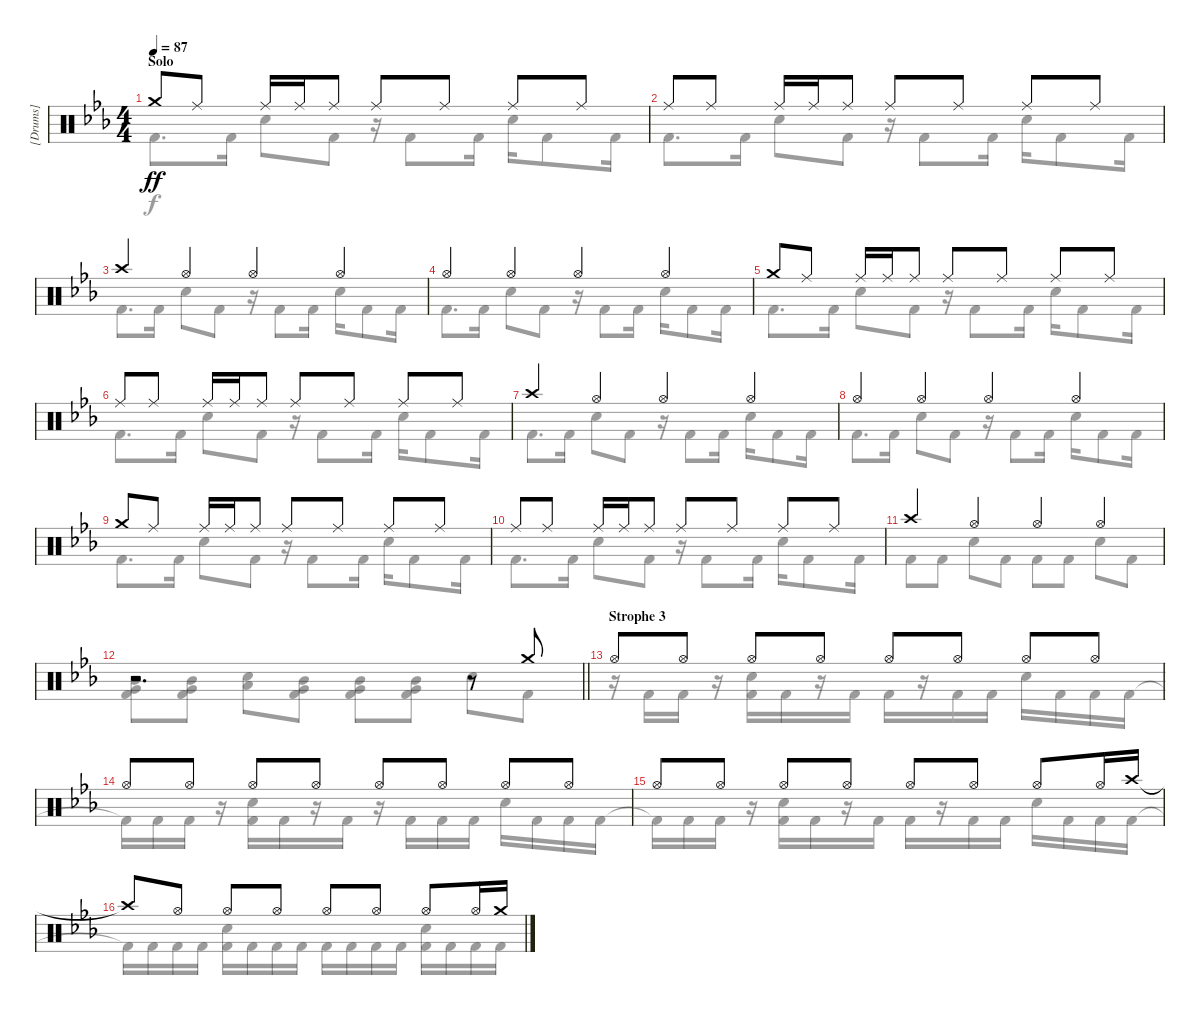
\track ("[Drums]" "[Drums]") {instrument percussion}
\staff {score}
\articulation defaults
\voice
\ts (4 4)
\section ("" "Solo")
\tempo 87
\clef neutral
\ks cminor "Crash medium (hit)".8{dy ff} "Ride (middle)".8 "Ride (middle)".16 "Ride (middle)".16 "Ride (middle)".8 "Ride (middle)".8 "Ride (middle)".8 "Ride (middle)".8 "Ride (middle)".8
|
"Ride (middle)".8 "Ride (middle)".8 "Ride (middle)".16 "Ride (middle)".16 "Ride (middle)".8 "Ride (middle)".8 "Ride (middle)".8 "Ride (middle)".8 "Ride (middle)".8 |
"Crash high (hit)".4 "Hi-Hat (open)".4 "Hi-Hat (open)".4 "Hi-Hat (open)".4 |
"Hi-Hat (open)".4 "Hi-Hat (open)".4 "Hi-Hat (open)".4 "Hi-Hat (open)".4 |
"Crash medium (hit)".8 "Ride (middle)".8 "Ride (middle)".16 "Ride (middle)".16 "Ride (middle)".8 "Ride (middle)".8 "Ride (middle)".8 "Ride (middle)".8 "Ride (middle)".8 |
"Ride (middle)".8 "Ride (middle)".8 "Ride (middle)".16 "Ride (middle)".16 "Ride (middle)".8 "Ride (middle)".8 "Ride (middle)".8 "Ride (middle)".8 "Ride (middle)".8 |
"Crash high (hit)".4 "Hi-Hat (open)".4 "Hi-Hat (open)".4 "Hi-Hat (open)".4 |
"Hi-Hat (open)".4 "Hi-Hat (open)".4 "Hi-Hat (open)".4 "Hi-Hat (open)".4 |
"Crash medium (hit)".8 "Ride (middle)".8 "Ride (middle)".16 "Ride (middle)".16 "Ride (middle)".8 "Ride (middle)".8 "Ride (middle)".8 "Ride (middle)".8 "Ride (middle)".8 |
"Ride (middle)".8 "Ride (middle)".8 "Ride (middle)".16 "Ride (middle)".16 "Ride (middle)".8 "Ride (middle)".8 "Ride (middle)".8 "Ride (middle)".8 "Ride (middle)".8 |
"Crash high (hit)".4 "Hi-Hat (open)".4 "Hi-Hat (open)".4 "Hi-Hat (open)".4 |
\barLineRight lightlight
r.2{d} r.8 "Crash medium (hit)".8 |
\section ("" "Strophe 3")
"Hi-Hat (open)".8 "Hi-Hat (open)".8 "Hi-Hat (open)".8 "Hi-Hat (open)".8 "Hi-Hat (open)".8 "Hi-Hat (open)".8 "Hi-Hat (open)".8 "Hi-Hat (open)".8 |
"Hi-Hat (open)".8 "Hi-Hat (open)".8 "Hi-Hat (open)".8 "Hi-Hat (open)".8 "Hi-Hat (open)".8 "Hi-Hat (open)".8 "Hi-Hat (open)".8 "Hi-Hat (open)".8 |
"Hi-Hat (open)".8 "Hi-Hat (open)".8 "Hi-Hat (open)".8 "Hi-Hat (open)".8 "Hi-Hat (open)".8 "Hi-Hat (open)".8 "Hi-Hat (open)".8 "Hi-Hat (open)".16 "Crash high (hit)".16 |
"Crash high (hit)"{t}.8 "Hi-Hat (open)".8 "Hi-Hat (open)".8 "Hi-Hat (open)".8 "Hi-Hat (open)".8 "Hi-Hat (open)".8 "Hi-Hat (open)".8 "Hi-Hat (open)".16 "Crash medium (hit)".16
\voice
\clef neutral
\ottava regular
\simile none
\ks cminor "Kick (hit) 2".8{d dy f} "Kick (hit) 2".16 "Snare (hit) 2".8 "Kick (hit) 2".8
r.16 "Kick (hit) 2".8 "Kick (hit) 2".16 "Snare (hit) 2".16 "Kick (hit) 2".8 "Kick (hit) 2".16 |
"Kick (hit) 2".8{d} "Kick (hit) 2".16 "Snare (hit) 2".8 "Kick (hit) 2".8 r.16 "Kick (hit) 2".8 "Kick (hit) 2".16 "Snare (hit) 2".16 "Kick (hit) 2".8 "Kick (hit) 2".16 |
"Kick (hit) 2".8{d} "Kick (hit) 2".16 "Snare (hit) 2".8 "Kick (hit) 2".8 r.16 "Kick (hit) 2".8 "Kick (hit) 2".16 "Snare (hit) 2".16 "Kick (hit) 2".8 "Kick (hit) 2".16 |
"Kick (hit) 2".8{d} "Kick (hit) 2".16 "Snare (hit) 2".8 "Kick (hit) 2".8 r.16 "Kick (hit) 2".8 "Kick (hit) 2".16 "Snare (hit) 2".16 "Kick (hit) 2".8 "Kick (hit) 2".16 |
"Kick (hit) 2".8{d} "Kick (hit) 2".16 "Snare (hit) 2".8 "Kick (hit) 2".8 r.16 "Kick (hit) 2".8 "Kick (hit) 2".16 "Snare (hit) 2".16 "Kick (hit) 2".8 "Kick (hit) 2".16 |
"Kick (hit) 2".8{d} "Kick (hit) 2".16 "Snare (hit) 2".8 "Kick (hit) 2".8 r.16 "Kick (hit) 2".8 "Kick (hit) 2".16 "Snare (hit) 2".16 "Kick (hit) 2".8 "Kick (hit) 2".16 |
"Kick (hit) 2".8{d} "Kick (hit) 2".16 "Snare (hit) 2".8 "Kick (hit) 2".8 r.16 "Kick (hit) 2".8 "Kick (hit) 2".16 "Snare (hit) 2".16 "Kick (hit) 2".8 "Kick (hit) 2".16 |
"Kick (hit) 2".8{d} "Kick (hit) 2".16 "Snare (hit) 2".8 "Kick (hit) 2".8 r.16 "Kick (hit) 2".8 "Kick (hit) 2".16 "Snare (hit) 2".16 "Kick (hit) 2".8 "Kick (hit) 2".16 |
"Kick (hit) 2".8{d} "Kick (hit) 2".16 "Snare (hit) 2".8 "Kick (hit) 2".8 r.16 "Kick (hit) 2".8 "Kick (hit) 2".16 "Snare (hit) 2".16 "Kick (hit) 2".8 "Kick (hit) 2".16 |
"Kick (hit) 2".8{d} "Kick (hit) 2".16 "Snare (hit) 2".8 "Kick (hit) 2".8 r.16 "Kick (hit) 2".8 "Kick (hit) 2".16 "Snare (hit) 2".16 "Kick (hit) 2".8 "Kick (hit) 2".16 |
"Kick (hit) 2".8 "Kick (hit) 2".8 "Snare (hit) 2".8 "Kick (hit) 2".8 "Kick (hit) 2".8 "Kick (hit) 2".8 "Snare (hit) 2".8 "Kick (hit) 2".8 |
\barLineRight lightlight
("Kick (hit) 2" "Very Low Tom (hit)" "Mid Tom (hit)").8 ("Kick (hit) 2" "Mid Tom (hit)" "Very Low Tom (hit)").8 ("Snare (hit) 2" "Low Tom (hit)").8 ("Kick (hit) 2" "Very Low Tom (hit)" "Mid Tom (hit)").8 ("Kick (hit) 2" "Mid Tom (hit)" "Very Low Tom (hit)").8 ("Kick (hit) 2" "Mid Tom (hit)" "Very Low Tom (hit)").8 "Snare (hit) 2".8 "Kick (hit) 2".8 |
r.16 "Kick (hit) 2".16 "Kick (hit) 2".16 r.16 ("Kick (hit) 2" "Snare (hit) 2").16 "Kick (hit) 2".16 r.16 "Kick (hit) 2".16 "Kick (hit) 2".16 r.16 "Kick (hit) 2".16 "Kick (hit) 2".16 "Snare (hit) 2".16 "Kick (hit) 2".16 "Kick (hit) 2".16 "Kick (hit) 2".16 |
"Kick (hit) 2"{t}.16 "Kick (hit) 2".16 "Kick (hit) 2".16 r.16 ("Kick (hit) 2" "Snare (hit) 2").16 "Kick (hit) 2".16 r.16 "Kick (hit) 2".16 r.16 "Kick (hit) 2".16 "Kick (hit) 2".16 "Kick (hit) 2".16 "Snare (hit) 2".16 "Kick (hit) 2".16 "Kick (hit) 2".16 "Kick (hit) 2".16 |
"Kick (hit) 2"{t}.16 "Kick (hit) 2".16 "Kick (hit) 2".16 r.16 ("Kick (hit) 2" "Snare (hit) 2").16 "Kick (hit) 2".16 r.16 "Kick (hit) 2".16 "Kick (hit) 2".16 r.16 "Kick (hit) 2".16 "Kick (hit) 2".16 "Snare (hit) 2".16 "Kick (hit) 2".16 "Kick (hit) 2".16 "Kick (hit) 2".16 |
"Kick (hit) 2"{t}.16 "Kick (hit) 2".16 "Kick (hit) 2".16 "Kick (hit) 2".16 ("Kick (hit) 2" "Snare (hit) 2").16 "Kick (hit) 2".16 "Kick (hit) 2".16 "Kick (hit) 2".16 "Kick (hit) 2".16 "Kick (hit) 2".16 "Kick (hit) 2".16 "Kick (hit) 2".16 ("Kick (hit) 2" "Snare (hit) 2").16 "Kick (hit) 2".16 "Kick (hit) 2".16 "Kick (hit) 2".16
